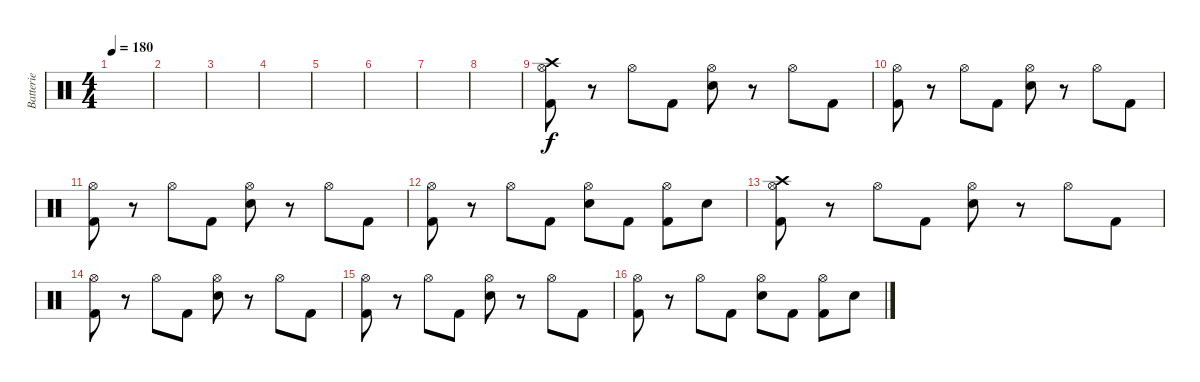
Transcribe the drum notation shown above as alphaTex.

\track ("Batterie" "Batterie") {instrument percussion}
\staff {score}
\articulation defaults
\ts (4 4)
\tempo 180
\clef neutral
\ks c
|
|
|
|
|
|
|
|
("Crash high (hit)" "Hi-Hat (open)" "Kick (hit) 2").8 r.8 "Hi-Hat (open)".8 "Kick (hit) 2".8 ("Hi-Hat (open)" "Snare (hit) 2").8 r.8 "Hi-Hat (open)".8 "Kick (hit) 2".8 |
("Hi-Hat (open)" "Kick (hit) 2").8 r.8 "Hi-Hat (open)".8 "Kick (hit) 2".8 ("Hi-Hat (open)" "Snare (hit) 2").8 r.8 "Hi-Hat (open)".8 "Kick (hit) 2".8 |
("Hi-Hat (open)" "Kick (hit) 2").8 r.8 "Hi-Hat (open)".8 "Kick (hit) 2".8 ("Hi-Hat (open)" "Snare (hit) 2").8 r.8 "Hi-Hat (open)".8 "Kick (hit) 2".8 |
("Hi-Hat (open)" "Kick (hit) 2").8 r.8 "Hi-Hat (open)".8 "Kick (hit) 2".8 ("Hi-Hat (open)" "Snare (hit) 2").8 "Kick (hit) 2".8 ("Hi-Hat (open)" "Kick (hit) 2").8 "Snare (hit) 2".8 |
("Crash high (hit)" "Hi-Hat (open)" "Kick (hit) 2").8 r.8 "Hi-Hat (open)".8 "Kick (hit) 2".8 ("Hi-Hat (open)" "Snare (hit) 2").8 r.8 "Hi-Hat (open)".8 "Kick (hit) 2".8 |
("Hi-Hat (open)" "Kick (hit) 2").8 r.8 "Hi-Hat (open)".8 "Kick (hit) 2".8 ("Hi-Hat (open)" "Snare (hit) 2").8 r.8 "Hi-Hat (open)".8 "Kick (hit) 2".8 |
("Hi-Hat (open)" "Kick (hit) 2").8 r.8 "Hi-Hat (open)".8 "Kick (hit) 2".8 ("Hi-Hat (open)" "Snare (hit) 2").8 r.8 "Hi-Hat (open)".8 "Kick (hit) 2".8 |
("Hi-Hat (open)" "Kick (hit) 2").8 r.8 "Hi-Hat (open)".8 "Kick (hit) 2".8 ("Hi-Hat (open)" "Snare (hit) 2").8 "Kick (hit) 2".8 ("Hi-Hat (open)" "Kick (hit) 2").8 "Snare (hit) 2".8
